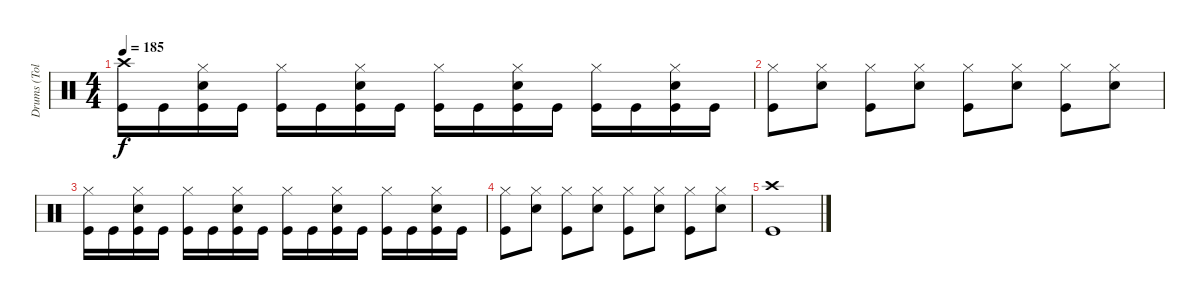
\track ("Drums (Tolik)" "Drums (Tol") {instrument percussion}
\staff {score}
\articulation defaults
\ts (4 4)
\tempo 185
\clef neutral
\ks c
("Crash high (hit)" "Kick (hit)").16{dy f} "Kick (hit)".16 ("Hi-Hat (closed)" "Kick (hit)" "Electric Snare (hit)").16 "Kick (hit)".16 ("Hi-Hat (closed)" "Kick (hit)").16 "Kick (hit)".16 ("Hi-Hat (closed)" "Kick (hit)" "Electric Snare (hit)").16 "Kick (hit)".16 ("Hi-Hat (closed)" "Kick (hit)").16 "Kick (hit)".16 ("Hi-Hat (closed)" "Kick (hit)" "Electric Snare (hit)").16 "Kick (hit)".16 ("Hi-Hat (closed)" "Kick (hit)").16 "Kick (hit)".16 ("Hi-Hat (closed)" "Kick (hit)" "Electric Snare (hit)").16 "Kick (hit)".16 |
("Hi-Hat (closed)" "Kick (hit)").8 ("Hi-Hat (closed)" "Electric Snare (hit)").8 ("Hi-Hat (closed)" "Kick (hit)").8 ("Hi-Hat (closed)" "Electric Snare (hit)").8 ("Hi-Hat (closed)" "Kick (hit)").8 ("Hi-Hat (closed)" "Electric Snare (hit)").8 ("Hi-Hat (closed)" "Kick (hit)").8 ("Hi-Hat (closed)" "Electric Snare (hit)").8 |
("Hi-Hat (closed)" "Kick (hit)").16 "Kick (hit)".16 ("Hi-Hat (closed)" "Kick (hit)" "Electric Snare (hit)").16 "Kick (hit)".16 ("Hi-Hat (closed)" "Kick (hit)").16 "Kick (hit)".16 ("Hi-Hat (closed)" "Kick (hit)" "Electric Snare (hit)").16 "Kick (hit)".16 ("Hi-Hat (closed)" "Kick (hit)").16 "Kick (hit)".16 ("Hi-Hat (closed)" "Kick (hit)" "Electric Snare (hit)").16 "Kick (hit)".16 ("Hi-Hat (closed)" "Kick (hit)").16 "Kick (hit)".16 ("Hi-Hat (closed)" "Kick (hit)" "Electric Snare (hit)").16 "Kick (hit)".16 |
("Hi-Hat (closed)" "Kick (hit)").8 ("Hi-Hat (closed)" "Electric Snare (hit)").8 ("Hi-Hat (closed)" "Kick (hit)").8 ("Hi-Hat (closed)" "Electric Snare (hit)").8 ("Hi-Hat (closed)" "Kick (hit)").8 ("Hi-Hat (closed)" "Electric Snare (hit)").8 ("Hi-Hat (closed)" "Kick (hit)").8 ("Hi-Hat (closed)" "Electric Snare (hit)").8 |
("Crash high (hit)" "Kick (hit)").1
